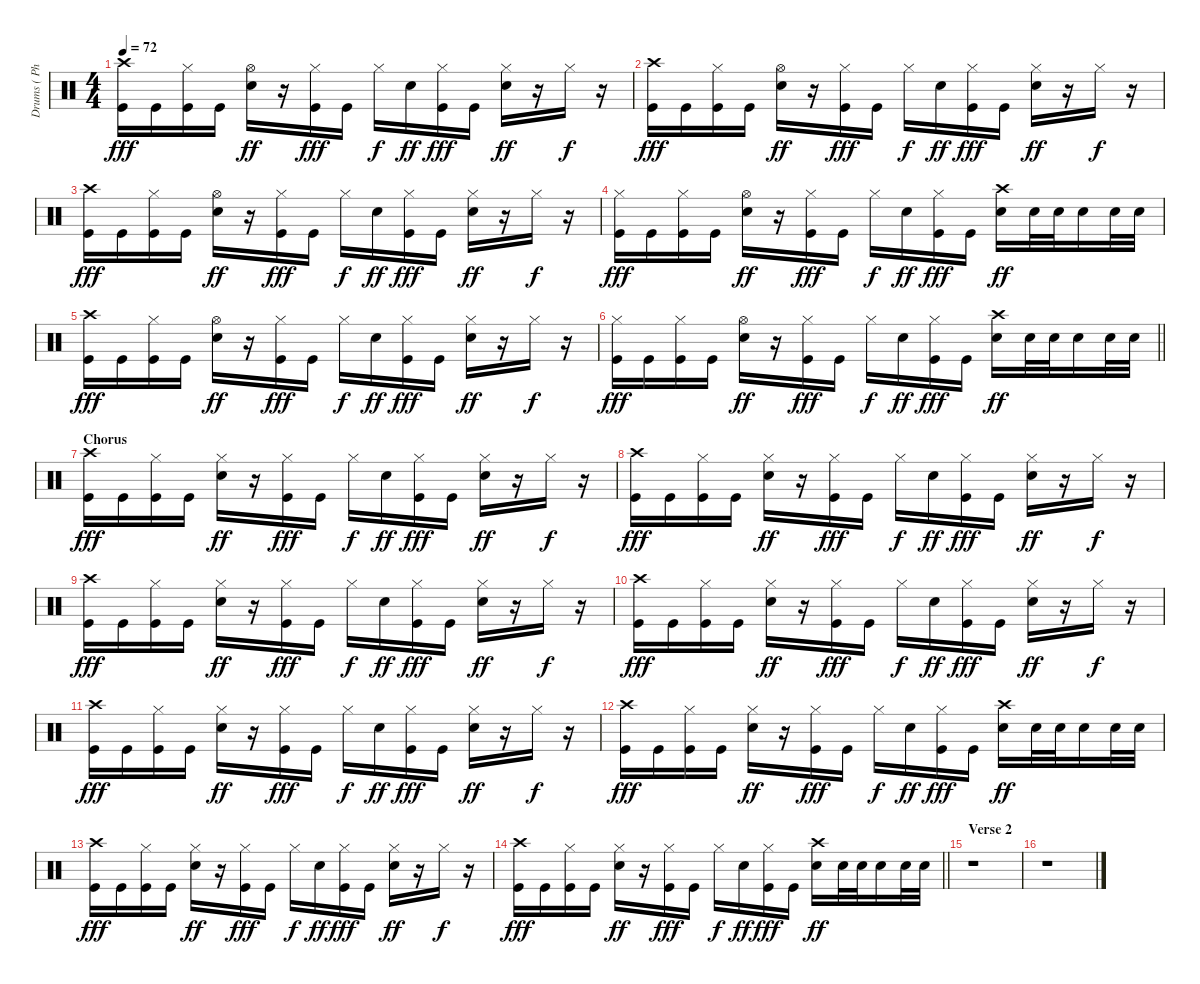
\track ("Drums ( Phillip Selway )" "Drums ( Ph") {instrument percussion}
\staff {score}
\articulation defaults
\ts (4 4)
\tempo 72
\clef neutral
\ks c
("Crash high (hit)" "Kick (hit)").16{dy fff} "Kick (hit)".16 ("Hi-Hat (closed)" "Kick (hit)").16 "Kick (hit)".16 ("Hi-Hat (open)" "Electric Snare (hit)").16{dy ff} r.16 ("Hi-Hat (closed)" "Kick (hit)").16{dy fff} "Kick (hit)".16 "Hi-Hat (closed)".16{dy f} "Electric Snare (hit)".16{dy ff} ("Hi-Hat (closed)" "Kick (hit)").16{dy fff} "Kick (hit)".16 ("Hi-Hat (closed)" "Electric Snare (hit)").16{dy ff} r.16 "Hi-Hat (closed)".16{dy f} r.16 |
("Crash high (hit)" "Kick (hit)").16{dy fff} "Kick (hit)".16 ("Hi-Hat (closed)" "Kick (hit)").16 "Kick (hit)".16 ("Hi-Hat (open)" "Electric Snare (hit)").16{dy ff} r.16 ("Hi-Hat (closed)" "Kick (hit)").16{dy fff} "Kick (hit)".16 "Hi-Hat (closed)".16{dy f} "Electric Snare (hit)".16{dy ff} ("Hi-Hat (closed)" "Kick (hit)").16{dy fff} "Kick (hit)".16 ("Hi-Hat (closed)" "Electric Snare (hit)").16{dy ff} r.16 "Hi-Hat (closed)".16{dy f} r.16 |
("Crash high (hit)" "Kick (hit)").16{dy fff} "Kick (hit)".16 ("Hi-Hat (closed)" "Kick (hit)").16 "Kick (hit)".16 ("Hi-Hat (open)" "Electric Snare (hit)").16{dy ff} r.16 ("Hi-Hat (closed)" "Kick (hit)").16{dy fff} "Kick (hit)".16 "Hi-Hat (closed)".16{dy f} "Electric Snare (hit)".16{dy ff} ("Hi-Hat (closed)" "Kick (hit)").16{dy fff} "Kick (hit)".16 ("Hi-Hat (closed)" "Electric Snare (hit)").16{dy ff} r.16 "Hi-Hat (closed)".16{dy f} r.16 |
("Hi-Hat (closed)" "Kick (hit)").16{dy fff} "Kick (hit)".16 ("Hi-Hat (closed)" "Kick (hit)").16 "Kick (hit)".16 ("Hi-Hat (open)" "Electric Snare (hit)").16{dy ff} r.16 ("Hi-Hat (closed)" "Kick (hit)").16{dy fff} "Kick (hit)".16 "Hi-Hat (closed)".16{dy f} "Electric Snare (hit)".16{dy ff} ("Hi-Hat (closed)" "Kick (hit)").16{dy fff} "Kick (hit)".16 ("Crash high (hit)" "Electric Snare (hit)").16{dy ff} "Electric Snare (hit)".32 "Electric Snare (hit)".32 "Electric Snare (hit)".16 "Electric Snare (hit)".32 "Electric Snare (hit)".32 |
("Crash high (hit)" "Kick (hit)").16{dy fff} "Kick (hit)".16 ("Hi-Hat (closed)" "Kick (hit)").16 "Kick (hit)".16 ("Hi-Hat (open)" "Electric Snare (hit)").16{dy ff} r.16 ("Hi-Hat (closed)" "Kick (hit)").16{dy fff} "Kick (hit)".16 "Hi-Hat (closed)".16{dy f} "Electric Snare (hit)".16{dy ff} ("Hi-Hat (closed)" "Kick (hit)").16{dy fff} "Kick (hit)".16 ("Hi-Hat (closed)" "Electric Snare (hit)").16{dy ff} r.16 "Hi-Hat (closed)".16{dy f} r.16 |
\barLineRight lightlight
("Hi-Hat (closed)" "Kick (hit)").16{dy fff} "Kick (hit)".16 ("Hi-Hat (closed)" "Kick (hit)").16 "Kick (hit)".16 ("Hi-Hat (open)" "Electric Snare (hit)").16{dy ff} r.16 ("Hi-Hat (closed)" "Kick (hit)").16{dy fff} "Kick (hit)".16 "Hi-Hat (closed)".16{dy f} "Electric Snare (hit)".16{dy ff} ("Hi-Hat (closed)" "Kick (hit)").16{dy fff} "Kick (hit)".16 ("Crash high (hit)" "Electric Snare (hit)").16{dy ff} "Electric Snare (hit)".32 "Electric Snare (hit)".32 "Electric Snare (hit)".16 "Electric Snare (hit)".32 "Electric Snare (hit)".32 |
\section ("" "Chorus")
("Crash high (hit)" "Kick (hit)").16{dy fff} "Kick (hit)".16 ("Hi-Hat (closed)" "Kick (hit)").16 "Kick (hit)".16 ("Hi-Hat (closed)" "Electric Snare (hit)").16{dy ff} r.16 ("Hi-Hat (closed)" "Kick (hit)").16{dy fff} "Kick (hit)".16 "Hi-Hat (closed)".16{dy f} "Electric Snare (hit)".16{dy ff} ("Hi-Hat (closed)" "Kick (hit)").16{dy fff} "Kick (hit)".16 ("Hi-Hat (closed)" "Electric Snare (hit)").16{dy ff} r.16 "Hi-Hat (closed)".16{dy f} r.16 |
("Crash high (hit)" "Kick (hit)").16{dy fff} "Kick (hit)".16 ("Hi-Hat (closed)" "Kick (hit)").16 "Kick (hit)".16 ("Hi-Hat (closed)" "Electric Snare (hit)").16{dy ff} r.16 ("Hi-Hat (closed)" "Kick (hit)").16{dy fff} "Kick (hit)".16 "Hi-Hat (closed)".16{dy f} "Electric Snare (hit)".16{dy ff} ("Hi-Hat (closed)" "Kick (hit)").16{dy fff} "Kick (hit)".16 ("Hi-Hat (closed)" "Electric Snare (hit)").16{dy ff} r.16 "Hi-Hat (closed)".16{dy f} r.16 |
("Crash high (hit)" "Kick (hit)").16{dy fff} "Kick (hit)".16 ("Hi-Hat (closed)" "Kick (hit)").16 "Kick (hit)".16 ("Hi-Hat (closed)" "Electric Snare (hit)").16{dy ff} r.16 ("Hi-Hat (closed)" "Kick (hit)").16{dy fff} "Kick (hit)".16 "Hi-Hat (closed)".16{dy f} "Electric Snare (hit)".16{dy ff} ("Hi-Hat (closed)" "Kick (hit)").16{dy fff} "Kick (hit)".16 ("Hi-Hat (closed)" "Electric Snare (hit)").16{dy ff} r.16 "Hi-Hat (closed)".16{dy f} r.16 |
("Crash high (hit)" "Kick (hit)").16{dy fff} "Kick (hit)".16 ("Hi-Hat (closed)" "Kick (hit)").16 "Kick (hit)".16 ("Hi-Hat (closed)" "Electric Snare (hit)").16{dy ff} r.16 ("Hi-Hat (closed)" "Kick (hit)").16{dy fff} "Kick (hit)".16 "Hi-Hat (closed)".16{dy f} "Electric Snare (hit)".16{dy ff} ("Hi-Hat (closed)" "Kick (hit)").16{dy fff} "Kick (hit)".16 ("Hi-Hat (closed)" "Electric Snare (hit)").16{dy ff} r.16 "Hi-Hat (closed)".16{dy f} r.16 |
("Crash high (hit)" "Kick (hit)").16{dy fff} "Kick (hit)".16 ("Hi-Hat (closed)" "Kick (hit)").16 "Kick (hit)".16 ("Hi-Hat (closed)" "Electric Snare (hit)").16{dy ff} r.16 ("Hi-Hat (closed)" "Kick (hit)").16{dy fff} "Kick (hit)".16 "Hi-Hat (closed)".16{dy f} "Electric Snare (hit)".16{dy ff} ("Hi-Hat (closed)" "Kick (hit)").16{dy fff} "Kick (hit)".16 ("Hi-Hat (closed)" "Electric Snare (hit)").16{dy ff} r.16 "Hi-Hat (closed)".16{dy f} r.16 |
("Crash high (hit)" "Kick (hit)").16{dy fff} "Kick (hit)".16 ("Hi-Hat (closed)" "Kick (hit)").16 "Kick (hit)".16 ("Hi-Hat (closed)" "Electric Snare (hit)").16{dy ff} r.16 ("Hi-Hat (closed)" "Kick (hit)").16{dy fff} "Kick (hit)".16 "Hi-Hat (closed)".16{dy f} "Electric Snare (hit)".16{dy ff} ("Hi-Hat (closed)" "Kick (hit)").16{dy fff} "Kick (hit)".16 ("Crash high (hit)" "Electric Snare (hit)").16{dy ff} "Electric Snare (hit)".32 "Electric Snare (hit)".32 "Electric Snare (hit)".16 "Electric Snare (hit)".32 "Electric Snare (hit)".32 |
("Crash high (hit)" "Kick (hit)").16{dy fff} "Kick (hit)".16 ("Hi-Hat (closed)" "Kick (hit)").16 "Kick (hit)".16 ("Hi-Hat (closed)" "Electric Snare (hit)").16{dy ff} r.16 ("Hi-Hat (closed)" "Kick (hit)").16{dy fff} "Kick (hit)".16 "Hi-Hat (closed)".16{dy f} "Electric Snare (hit)".16{dy ff} ("Hi-Hat (closed)" "Kick (hit)").16{dy fff} "Kick (hit)".16 ("Hi-Hat (closed)" "Electric Snare (hit)").16{dy ff} r.16 "Hi-Hat (closed)".16{dy f} r.16 |
\barLineRight lightlight
("Crash high (hit)" "Kick (hit)").16{dy fff} "Kick (hit)".16 ("Hi-Hat (closed)" "Kick (hit)").16 "Kick (hit)".16 ("Hi-Hat (closed)" "Electric Snare (hit)").16{dy ff} r.16 ("Hi-Hat (closed)" "Kick (hit)").16{dy fff} "Kick (hit)".16 "Hi-Hat (closed)".16{dy f} "Electric Snare (hit)".16{dy ff} ("Hi-Hat (closed)" "Kick (hit)").16{dy fff} "Kick (hit)".16 ("Crash high (hit)" "Electric Snare (hit)").16{dy ff} "Electric Snare (hit)".32 "Electric Snare (hit)".32 "Electric Snare (hit)".16 "Electric Snare (hit)".32 "Electric Snare (hit)".32 |
\section ("" "Verse 2")
r.1 |
r.1
